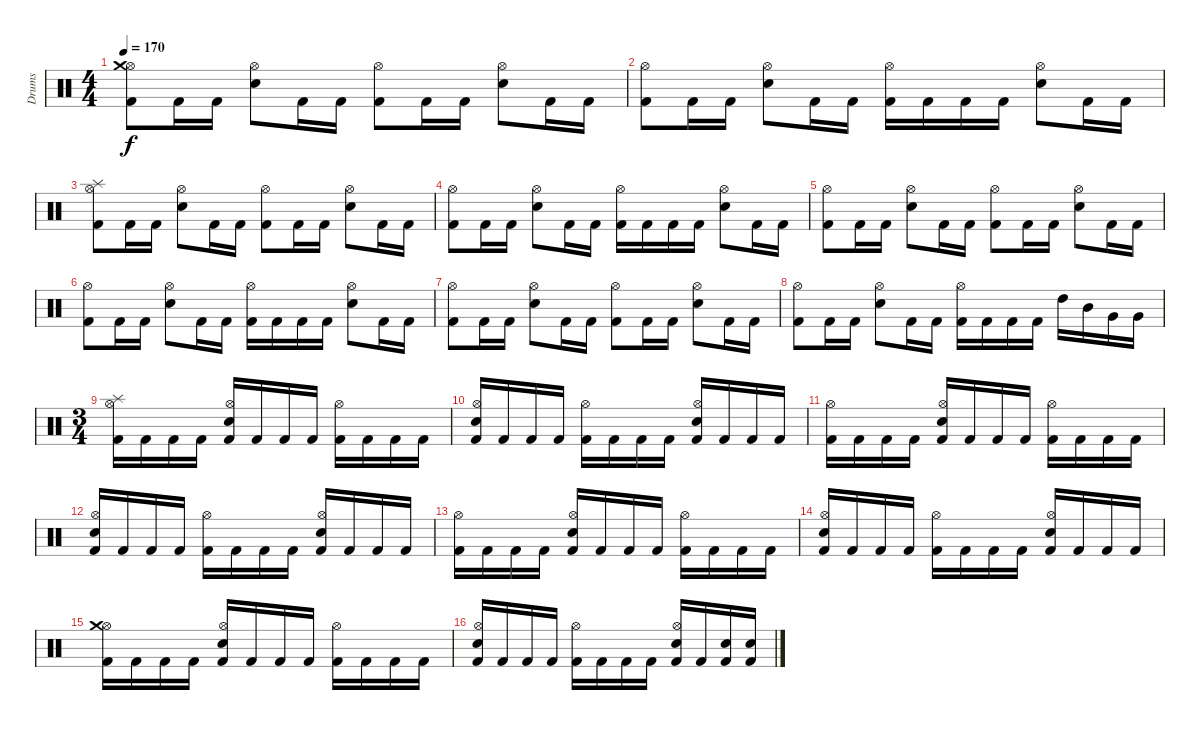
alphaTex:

\track ("Drums" "Drums") {instrument percussion}
\staff {score}
\articulation defaults
\ts (4 4)
\tempo 170
\clef neutral
\ks c
("Kick (hit) 2" "Hi-Hat (open)" "Crash medium (hit)").8{dy f} "Kick (hit) 2".16 "Kick (hit) 2".16 ("Snare (hit) 2" "Hi-Hat (open)").8 "Kick (hit) 2".16 "Kick (hit) 2".16 ("Kick (hit) 2" "Hi-Hat (open)").8 "Kick (hit) 2".16 "Kick (hit) 2".16 ("Snare (hit) 2" "Hi-Hat (open)").8 "Kick (hit) 2".16 "Kick (hit) 2".16 |
("Kick (hit) 2" "Hi-Hat (open)").8 "Kick (hit) 2".16 "Kick (hit) 2".16 ("Snare (hit) 2" "Hi-Hat (open)").8 "Kick (hit) 2".16 "Kick (hit) 2".16 ("Kick (hit) 2" "Hi-Hat (open)").16 "Kick (hit) 2".16 "Kick (hit) 2".16 "Kick (hit) 2".16 ("Snare (hit) 2" "Hi-Hat (open)").8 "Kick (hit) 2".16 "Kick (hit) 2".16 |
("Kick (hit) 2" "Hi-Hat (open)" "Splash (hit)").8 "Kick (hit) 2".16 "Kick (hit) 2".16 ("Snare (hit) 2" "Hi-Hat (open)").8 "Kick (hit) 2".16 "Kick (hit) 2".16 ("Kick (hit) 2" "Hi-Hat (open)").8 "Kick (hit) 2".16 "Kick (hit) 2".16 ("Snare (hit) 2" "Hi-Hat (open)").8 "Kick (hit) 2".16 "Kick (hit) 2".16 |
("Kick (hit) 2" "Hi-Hat (open)").8 "Kick (hit) 2".16 "Kick (hit) 2".16 ("Snare (hit) 2" "Hi-Hat (open)").8 "Kick (hit) 2".16 "Kick (hit) 2".16 ("Kick (hit) 2" "Hi-Hat (open)").16 "Kick (hit) 2".16 "Kick (hit) 2".16 "Kick (hit) 2".16 ("Snare (hit) 2" "Hi-Hat (open)").8 "Kick (hit) 2".16 "Kick (hit) 2".16 |
("Kick (hit) 2" "Hi-Hat (open)").8 "Kick (hit) 2".16 "Kick (hit) 2".16 ("Snare (hit) 2" "Hi-Hat (open)").8 "Kick (hit) 2".16 "Kick (hit) 2".16 ("Kick (hit) 2" "Hi-Hat (open)").8 "Kick (hit) 2".16 "Kick (hit) 2".16 ("Snare (hit) 2" "Hi-Hat (open)").8 "Kick (hit) 2".16 "Kick (hit) 2".16 |
("Kick (hit) 2" "Hi-Hat (open)").8 "Kick (hit) 2".16 "Kick (hit) 2".16 ("Snare (hit) 2" "Hi-Hat (open)").8 "Kick (hit) 2".16 "Kick (hit) 2".16 ("Kick (hit) 2" "Hi-Hat (open)").16 "Kick (hit) 2".16 "Kick (hit) 2".16 "Kick (hit) 2".16 ("Snare (hit) 2" "Hi-Hat (open)").8 "Kick (hit) 2".16 "Kick (hit) 2".16 |
("Kick (hit) 2" "Hi-Hat (open)").8 "Kick (hit) 2".16 "Kick (hit) 2".16 ("Snare (hit) 2" "Hi-Hat (open)").8 "Kick (hit) 2".16 "Kick (hit) 2".16 ("Kick (hit) 2" "Hi-Hat (open)").8 "Kick (hit) 2".16 "Kick (hit) 2".16 ("Snare (hit) 2" "Hi-Hat (open)").8 "Kick (hit) 2".16 "Kick (hit) 2".16 |
("Kick (hit) 2" "Hi-Hat (open)").8 "Kick (hit) 2".16 "Kick (hit) 2".16 ("Snare (hit) 2" "Hi-Hat (open)").8 "Kick (hit) 2".16 "Kick (hit) 2".16 ("Kick (hit) 2" "Hi-Hat (open)").16 "Kick (hit) 2".16 "Kick (hit) 2".16 "Kick (hit) 2".16 "High Tom (hit)".16 "Mid Tom (hit)".16 "Very Low Tom (hit)".16 "Very Low Tom (hit)".16 |
\ts (3 4)
\section ("" "")
("Kick (hit) 2" "Hi-Hat (open)" "Splash (hit)").16 "Kick (hit) 2".16 "Kick (hit) 2".16 "Kick (hit) 2".16 ("Kick (hit) 2" "Snare (hit) 2" "Hi-Hat (open)").16 "Kick (hit) 2".16 "Kick (hit) 2".16 "Kick (hit) 2".16 ("Kick (hit) 2" "Hi-Hat (open)").16 "Kick (hit) 2".16 "Kick (hit) 2".16 "Kick (hit) 2".16 |
("Kick (hit) 2" "Snare (hit) 2" "Hi-Hat (open)").16 "Kick (hit) 2".16 "Kick (hit) 2".16 "Kick (hit) 2".16 ("Kick (hit) 2" "Hi-Hat (open)").16 "Kick (hit) 2".16 "Kick (hit) 2".16 "Kick (hit) 2".16 ("Kick (hit) 2" "Snare (hit) 2" "Hi-Hat (open)").16 "Kick (hit) 2".16 "Kick (hit) 2".16 "Kick (hit) 2".16 |
("Kick (hit) 2" "Hi-Hat (open)").16 "Kick (hit) 2".16 "Kick (hit) 2".16 "Kick (hit) 2".16 ("Kick (hit) 2" "Snare (hit) 2" "Hi-Hat (open)").16 "Kick (hit) 2".16 "Kick (hit) 2".16 "Kick (hit) 2".16 ("Kick (hit) 2" "Hi-Hat (open)").16 "Kick (hit) 2".16 "Kick (hit) 2".16 "Kick (hit) 2".16 |
("Kick (hit) 2" "Snare (hit) 2" "Hi-Hat (open)").16 "Kick (hit) 2".16 "Kick (hit) 2".16 "Kick (hit) 2".16 ("Kick (hit) 2" "Hi-Hat (open)").16 "Kick (hit) 2".16 "Kick (hit) 2".16 "Kick (hit) 2".16 ("Kick (hit) 2" "Snare (hit) 2" "Hi-Hat (open)").16 "Kick (hit) 2".16 "Kick (hit) 2".16 "Kick (hit) 2".16 |
("Kick (hit) 2" "Hi-Hat (open)").16 "Kick (hit) 2".16 "Kick (hit) 2".16 "Kick (hit) 2".16 ("Kick (hit) 2" "Snare (hit) 2" "Hi-Hat (open)").16 "Kick (hit) 2".16 "Kick (hit) 2".16 "Kick (hit) 2".16 ("Kick (hit) 2" "Hi-Hat (open)").16 "Kick (hit) 2".16 "Kick (hit) 2".16 "Kick (hit) 2".16 |
("Kick (hit) 2" "Snare (hit) 2" "Hi-Hat (open)").16 "Kick (hit) 2".16 "Kick (hit) 2".16 "Kick (hit) 2".16 ("Kick (hit) 2" "Hi-Hat (open)").16 "Kick (hit) 2".16 "Kick (hit) 2".16 "Kick (hit) 2".16 ("Kick (hit) 2" "Snare (hit) 2" "Hi-Hat (open)").16 "Kick (hit) 2".16 "Kick (hit) 2".16 "Kick (hit) 2".16 |
("Kick (hit) 2" "Hi-Hat (open)" "Crash medium (hit)").16 "Kick (hit) 2".16 "Kick (hit) 2".16 "Kick (hit) 2".16 ("Kick (hit) 2" "Snare (hit) 2" "Hi-Hat (open)").16 "Kick (hit) 2".16 "Kick (hit) 2".16 "Kick (hit) 2".16 ("Kick (hit) 2" "Hi-Hat (open)").16 "Kick (hit) 2".16 "Kick (hit) 2".16 "Kick (hit) 2".16 |
("Kick (hit) 2" "Snare (hit) 2" "Hi-Hat (open)").16 "Kick (hit) 2".16 "Kick (hit) 2".16 "Kick (hit) 2".16 ("Kick (hit) 2" "Hi-Hat (open)").16 "Kick (hit) 2".16 "Kick (hit) 2".16 "Kick (hit) 2".16 ("Kick (hit) 2" "Snare (hit) 2" "Hi-Hat (open)").16 "Kick (hit) 2".16 ("Kick (hit) 2" "Snare (hit) 2").16 ("Kick (hit) 2" "Snare (hit) 2").16
